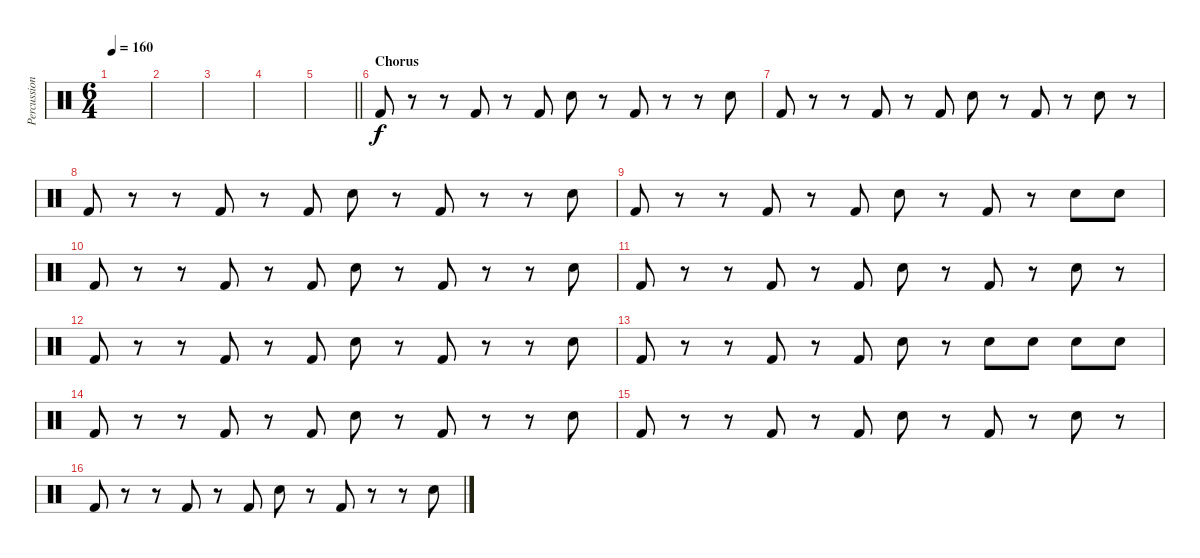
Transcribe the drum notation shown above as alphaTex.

\track ("Percussion" "Percussion") {instrument percussion}
\staff {score}
\articulation defaults
\ts (6 4)
\tempo 160
\clef neutral
\ks c
|
|
|
|
\barLineRight lightlight
|
\section ("" "Chorus")
"Kick (hit) 2".8 r.8 r.8 "Kick (hit) 2".8 r.8 "Kick (hit) 2".8 "Snare (hit) 2".8 r.8 "Kick (hit) 2".8 r.8 r.8 "Snare (hit) 2".8 |
"Kick (hit) 2".8 r.8 r.8 "Kick (hit) 2".8 r.8 "Kick (hit) 2".8 "Snare (hit) 2".8 r.8 "Kick (hit) 2".8 r.8 "Snare (hit) 2".8 r.8 |
"Kick (hit) 2".8 r.8 r.8 "Kick (hit) 2".8 r.8 "Kick (hit) 2".8 "Snare (hit) 2".8 r.8 "Kick (hit) 2".8 r.8 r.8 "Snare (hit) 2".8 |
"Kick (hit) 2".8 r.8 r.8 "Kick (hit) 2".8 r.8 "Kick (hit) 2".8 "Snare (hit) 2".8 r.8 "Kick (hit) 2".8 r.8 "Snare (hit) 2".8 "Snare (hit) 2".8 |
"Kick (hit) 2".8 r.8 r.8 "Kick (hit) 2".8 r.8 "Kick (hit) 2".8 "Snare (hit) 2".8 r.8 "Kick (hit) 2".8 r.8 r.8 "Snare (hit) 2".8 |
"Kick (hit) 2".8 r.8 r.8 "Kick (hit) 2".8 r.8 "Kick (hit) 2".8 "Snare (hit) 2".8 r.8 "Kick (hit) 2".8 r.8 "Snare (hit) 2".8 r.8 |
"Kick (hit) 2".8 r.8 r.8 "Kick (hit) 2".8 r.8 "Kick (hit) 2".8 "Snare (hit) 2".8 r.8 "Kick (hit) 2".8 r.8 r.8 "Snare (hit) 2".8 |
"Kick (hit) 2".8 r.8 r.8 "Kick (hit) 2".8 r.8 "Kick (hit) 2".8 "Snare (hit) 2".8 r.8 "Snare (hit) 2".8 "Snare (hit) 2".8 "Snare (hit) 2".8 "Snare (hit) 2".8 |
"Kick (hit) 2".8 r.8 r.8 "Kick (hit) 2".8 r.8 "Kick (hit) 2".8 "Snare (hit) 2".8 r.8 "Kick (hit) 2".8 r.8 r.8 "Snare (hit) 2".8 |
"Kick (hit) 2".8 r.8 r.8 "Kick (hit) 2".8 r.8 "Kick (hit) 2".8 "Snare (hit) 2".8 r.8 "Kick (hit) 2".8 r.8 "Snare (hit) 2".8 r.8 |
"Kick (hit) 2".8 r.8 r.8 "Kick (hit) 2".8 r.8 "Kick (hit) 2".8 "Snare (hit) 2".8 r.8 "Kick (hit) 2".8 r.8 r.8 "Snare (hit) 2".8
